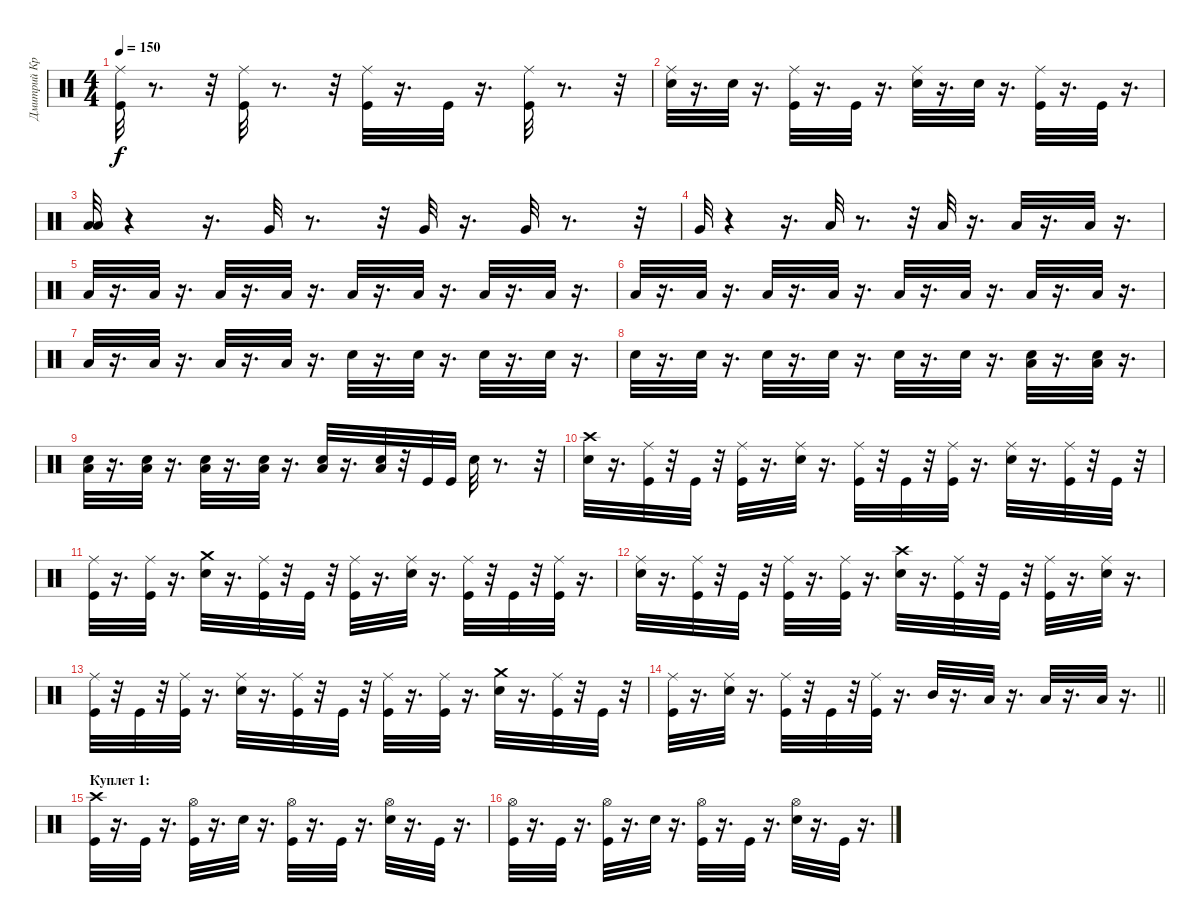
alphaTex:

\track ("Дмитрий Кривенков" "Дмитрий Кр") {instrument percussion}
\staff {score}
\articulation defaults
\ts (4 4)
\tempo 150
\clef neutral
\ks c
("Ride (middle)" "Kick (hit)").32{dy f} r.8{d} r.32 ("Ride (middle)" "Kick (hit)").32 r.8{d} r.32 ("Ride (middle)" "Kick (hit)").32 r.16{d} "Kick (hit)".32 r.16{d} ("Ride (middle)" "Kick (hit)").32 r.8{d} r.32 |
("Ride (middle)" "Electric Snare (hit)").32 r.16{d} "Electric Snare (hit)".32 r.16{d} ("Ride (middle)" "Kick (hit)").32 r.16{d} "Kick (hit)".32 r.16{d} ("Ride (middle)" "Electric Snare (hit)").32 r.16{d} "Electric Snare (hit)".32 r.16{d} ("Ride (middle)" "Kick (hit)").32 r.16{d} "Kick (hit)".32 r.16{d} |
("Low Tom (hit)" "Low Tom (hit)").32 r.4 r.16{d} "Very Low Tom (hit)".32 r.8{d} r.32 "Very Low Tom (hit)".32 r.16{d} "Very Low Tom (hit)".32 r.8{d} r.32 |
"Very Low Tom (hit)".32 r.4 r.16{d} "Low Floor Tom (hit)".32 r.8{d} r.32 "Low Floor Tom (hit)".32 r.16{d} "Low Floor Tom (hit)".32 r.16{d} "Low Floor Tom (hit)".32 r.16{d} |
"Low Tom (hit)".32 r.16{d} "Low Floor Tom (hit)".32 r.16{d} "Low Floor Tom (hit)".32 r.16{d} "Low Tom (hit)".32 r.16{d} "Low Floor Tom (hit)".32 r.16{d} "Low Floor Tom (hit)".32 r.16{d} "Low Tom (hit)".32 r.16{d} "Low Tom (hit)".32 r.16{d} |
"Low Floor Tom (hit)".32 r.16{d} "Low Floor Tom (hit)".32 r.16{d} "Low Tom (hit)".32 r.16{d} "Low Floor Tom (hit)".32 r.16{d} "Low Floor Tom (hit)".32 r.16{d} "Low Tom (hit)".32 r.16{d} "Low Floor Tom (hit)".32 r.16{d} "Low Floor Tom (hit)".32 r.16{d} |
"Low Tom (hit)".32 r.16{d} "Low Tom (hit)".32 r.16{d} "Low Floor Tom (hit)".32 r.16{d} "Low Floor Tom (hit)".32 r.16{d} "Electric Snare (hit)".32 r.16{d} "Electric Snare (hit)".32 r.16{d} "Electric Snare (hit)".32 r.16{d} "Electric Snare (hit)".32 r.16{d} |
"Electric Snare (hit)".32 r.16{d} "Electric Snare (hit)".32 r.16{d} "Electric Snare (hit)".32 r.16{d} "Electric Snare (hit)".32 r.16{d} "Electric Snare (hit)".32 r.16{d} "Electric Snare (hit)".32 r.16{d} ("Electric Snare (hit)" "Low Floor Tom (hit)").32 r.16{d} ("Low Floor Tom (hit)" "Electric Snare (hit)").32 r.16{d} |
("Low Floor Tom (hit)" "Electric Snare (hit)").32 r.16{d} ("Low Floor Tom (hit)" "Electric Snare (hit)").32 r.16{d} ("Low Floor Tom (hit)" "Electric Snare (hit)").32 r.16{d} ("Low Floor Tom (hit)" "Electric Snare (hit)").32 r.16{d} ("Low Floor Tom (hit)" "Electric Snare (hit)").32 r.16{d} ("Electric Snare (hit)" "Low Floor Tom (hit)").32 r.32 "Kick (hit)".32 "Kick (hit)".32 "Electric Snare (hit)".32 r.8{d} r.32 |
("Crash high (hit)" "Electric Snare (hit)").32 r.16{d} ("Ride (middle)" "Kick (hit)").32 r.32 "Kick (hit)".32 r.32 ("Kick (hit)" "Ride (middle)").32 r.16{d} ("Ride (middle)" "Electric Snare (hit)").32 r.16{d} ("Ride (middle)" "Kick (hit)").32 r.32 "Kick (hit)".32 r.32 ("Ride (middle)" "Kick (hit)").32 r.16{d} ("Ride (middle)" "Electric Snare (hit)").32 r.16{d} ("Ride (middle)" "Kick (hit)").32 r.32 "Kick (hit)".32 r.32 |
("Ride (middle)" "Kick (hit)").32 r.16{d} ("Ride (middle)" "Kick (hit)").32 r.16{d} ("Crash medium (hit)" "Electric Snare (hit)").32 r.16{d} ("Kick (hit)" "Ride (middle)").32 r.32 "Kick (hit)".32 r.32 ("Kick (hit)" "Ride (middle)").32 r.16{d} ("Electric Snare (hit)" "Ride (middle)").32 r.16{d} ("Kick (hit)" "Ride (middle)").32 r.32 "Kick (hit)".32 r.32 ("Kick (hit)" "Ride (middle)").32 r.16{d} |
("Electric Snare (hit)" "Ride (middle)").32 r.16{d} ("Kick (hit)" "Ride (middle)").32 r.32 "Kick (hit)".32 r.32 ("Kick (hit)" "Ride (middle)").32 r.16{d} ("Ride (middle)" "Kick (hit)").32 r.16{d} ("Electric Snare (hit)" "Crash high (hit)").32 r.16{d} ("Ride (middle)" "Kick (hit)").32 r.32 "Kick (hit)".32 r.32 ("Ride (middle)" "Kick (hit)").32 r.16{d} ("Ride (middle)" "Electric Snare (hit)").32 r.16{d} |
("Ride (middle)" "Kick (hit)").32 r.32 "Kick (hit)".32 r.32 ("Ride (middle)" "Kick (hit)").32 r.16{d} ("Ride (middle)" "Electric Snare (hit)").32 r.16{d} ("Ride (middle)" "Kick (hit)").32 r.32 "Kick (hit)".32 r.32 ("Ride (middle)" "Kick (hit)").32 r.16{d} ("Ride (middle)" "Kick (hit)").32 r.16{d} ("Electric Snare (hit)" "Crash medium (hit)").32 r.16{d} ("Kick (hit)" "Ride (middle)").32 r.32 "Kick (hit)".32 r.32 |
\barLineRight lightlight
("Ride (middle)" "Kick (hit)").32 r.16{d} ("Ride (middle)" "Electric Snare (hit)").32 r.16{d} ("Ride (middle)" "Kick (hit)").32 r.32 "Kick (hit)".32 r.32 ("Ride (middle)" "Kick (hit)").32 r.16{d} "Mid Tom (hit)".32 r.16{d} "Low Tom (hit)".32 r.16{d} "Low Tom (hit)".32 r.16{d} "Low Floor Tom (hit)".32 r.16{d} |
\section ("" "Куплет 1:")
("Crash high (hit)" "Kick (hit)").32 r.16{d} "Kick (hit)".32 r.16{d} ("Hi-Hat (open)" "Kick (hit)").32 r.16{d} "Electric Snare (hit)".32 r.16{d} ("Hi-Hat (open)" "Kick (hit)").32 r.16{d} "Kick (hit)".32 r.16{d} ("Hi-Hat (open)" "Electric Snare (hit)").32 r.16{d} "Kick (hit)".32 r.16{d} |
("Hi-Hat (open)" "Kick (hit)").32 r.16{d} "Kick (hit)".32 r.16{d} ("Hi-Hat (open)" "Kick (hit)").32 r.16{d} "Electric Snare (hit)".32 r.16{d} ("Hi-Hat (open)" "Kick (hit)").32 r.16{d} "Kick (hit)".32 r.16{d} ("Hi-Hat (open)" "Electric Snare (hit)").32 r.16{d} "Kick (hit)".32 r.16{d}
